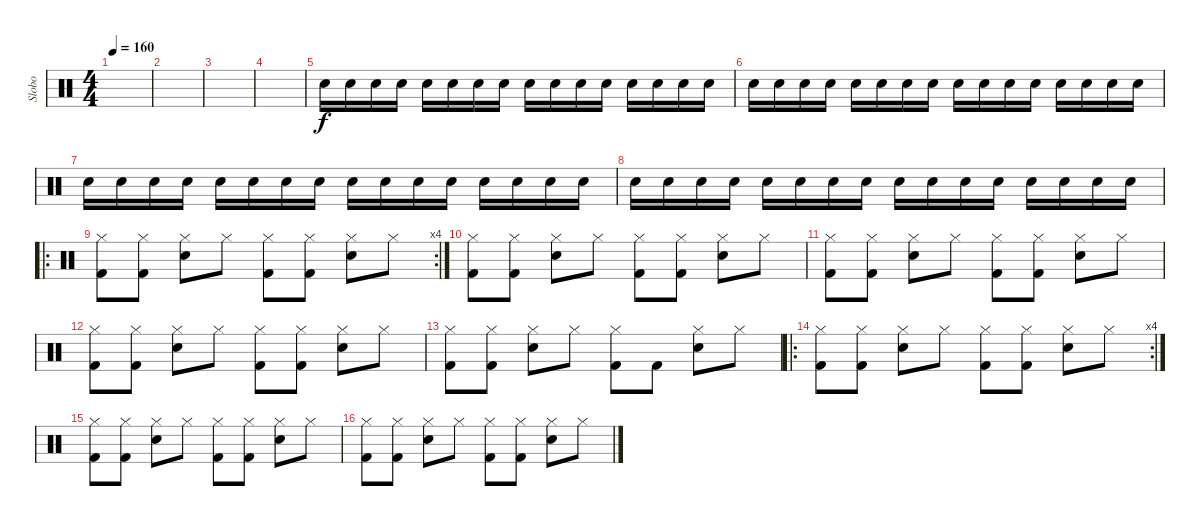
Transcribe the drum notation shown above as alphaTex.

\track ("Slobo" "Slobo") {instrument percussion}
\staff {score}
\articulation defaults
\ts (4 4)
\tempo 160
\clef neutral
\ks c
|
|
|
|
"Snare (hit) 2".16 "Snare (hit) 2".16 "Snare (hit) 2".16 "Snare (hit) 2".16 "Snare (hit) 2".16 "Snare (hit) 2".16 "Snare (hit) 2".16 "Snare (hit) 2".16 "Snare (hit) 2".16 "Snare (hit) 2".16 "Snare (hit) 2".16 "Snare (hit) 2".16 "Snare (hit) 2".16 "Snare (hit) 2".16 "Snare (hit) 2".16 "Snare (hit) 2".16 |
"Snare (hit) 2".16 "Snare (hit) 2".16 "Snare (hit) 2".16 "Snare (hit) 2".16 "Snare (hit) 2".16 "Snare (hit) 2".16 "Snare (hit) 2".16 "Snare (hit) 2".16 "Snare (hit) 2".16 "Snare (hit) 2".16 "Snare (hit) 2".16 "Snare (hit) 2".16 "Snare (hit) 2".16 "Snare (hit) 2".16 "Snare (hit) 2".16 "Snare (hit) 2".16 |
"Snare (hit) 2".16 "Snare (hit) 2".16 "Snare (hit) 2".16 "Snare (hit) 2".16 "Snare (hit) 2".16 "Snare (hit) 2".16 "Snare (hit) 2".16 "Snare (hit) 2".16 "Snare (hit) 2".16 "Snare (hit) 2".16 "Snare (hit) 2".16 "Snare (hit) 2".16 "Snare (hit) 2".16 "Snare (hit) 2".16 "Snare (hit) 2".16 "Snare (hit) 2".16 |
"Snare (hit) 2".16 "Snare (hit) 2".16 "Snare (hit) 2".16 "Snare (hit) 2".16 "Snare (hit) 2".16 "Snare (hit) 2".16 "Snare (hit) 2".16 "Snare (hit) 2".16 "Snare (hit) 2".16 "Snare (hit) 2".16 "Snare (hit) 2".16 "Snare (hit) 2".16 "Snare (hit) 2".16 "Snare (hit) 2".16 "Snare (hit) 2".16 "Snare (hit) 2".16 |
\ro
\rc 4
("Kick (hit) 2" "Hi-Hat (closed)").8 ("Kick (hit) 2" "Hi-Hat (closed)").8 ("Snare (hit) 2" "Hi-Hat (closed)").8 "Hi-Hat (closed)".8 ("Kick (hit) 2" "Hi-Hat (closed)").8 ("Kick (hit) 2" "Hi-Hat (closed)").8 ("Snare (hit) 2" "Hi-Hat (closed)").8 "Hi-Hat (closed)".8 |
("Kick (hit) 2" "Hi-Hat (closed)").8 ("Kick (hit) 2" "Hi-Hat (closed)").8 ("Snare (hit) 2" "Hi-Hat (closed)").8 "Hi-Hat (closed)".8 ("Kick (hit) 2" "Hi-Hat (closed)").8 ("Kick (hit) 2" "Hi-Hat (closed)").8 ("Snare (hit) 2" "Hi-Hat (closed)").8 "Hi-Hat (closed)".8 |
("Kick (hit) 2" "Hi-Hat (closed)").8 ("Kick (hit) 2" "Hi-Hat (closed)").8 ("Snare (hit) 2" "Hi-Hat (closed)").8 "Hi-Hat (closed)".8 ("Kick (hit) 2" "Hi-Hat (closed)").8 ("Kick (hit) 2" "Hi-Hat (closed)").8 ("Snare (hit) 2" "Hi-Hat (closed)").8 "Hi-Hat (closed)".8 |
("Kick (hit) 2" "Hi-Hat (closed)").8 ("Kick (hit) 2" "Hi-Hat (closed)").8 ("Snare (hit) 2" "Hi-Hat (closed)").8 "Hi-Hat (closed)".8 ("Kick (hit) 2" "Hi-Hat (closed)").8 ("Kick (hit) 2" "Hi-Hat (closed)").8 ("Snare (hit) 2" "Hi-Hat (closed)").8 "Hi-Hat (closed)".8 |
("Kick (hit) 2" "Hi-Hat (closed)").8 ("Kick (hit) 2" "Hi-Hat (closed)").8 ("Snare (hit) 2" "Hi-Hat (closed)").8 "Hi-Hat (closed)".8 ("Kick (hit) 2" "Hi-Hat (closed)").8 "Kick (hit) 2".8 ("Snare (hit) 2" "Hi-Hat (closed)").8 "Hi-Hat (closed)".8 |
\ro
\rc 4
("Kick (hit) 2" "Hi-Hat (closed)").8 ("Kick (hit) 2" "Hi-Hat (closed)").8 ("Snare (hit) 2" "Hi-Hat (closed)").8 "Hi-Hat (closed)".8 ("Kick (hit) 2" "Hi-Hat (closed)").8 ("Kick (hit) 2" "Hi-Hat (closed)").8 ("Snare (hit) 2" "Hi-Hat (closed)").8 "Hi-Hat (closed)".8 |
("Kick (hit) 2" "Hi-Hat (closed)").8 ("Kick (hit) 2" "Hi-Hat (closed)").8 ("Snare (hit) 2" "Hi-Hat (closed)").8 "Hi-Hat (closed)".8 ("Kick (hit) 2" "Hi-Hat (closed)").8 ("Kick (hit) 2" "Hi-Hat (closed)").8 ("Snare (hit) 2" "Hi-Hat (closed)").8 "Hi-Hat (closed)".8 |
("Kick (hit) 2" "Hi-Hat (closed)").8 ("Kick (hit) 2" "Hi-Hat (closed)").8 ("Snare (hit) 2" "Hi-Hat (closed)").8 "Hi-Hat (closed)".8 ("Kick (hit) 2" "Hi-Hat (closed)").8 ("Kick (hit) 2" "Hi-Hat (closed)").8 ("Snare (hit) 2" "Hi-Hat (closed)").8 "Hi-Hat (closed)".8
